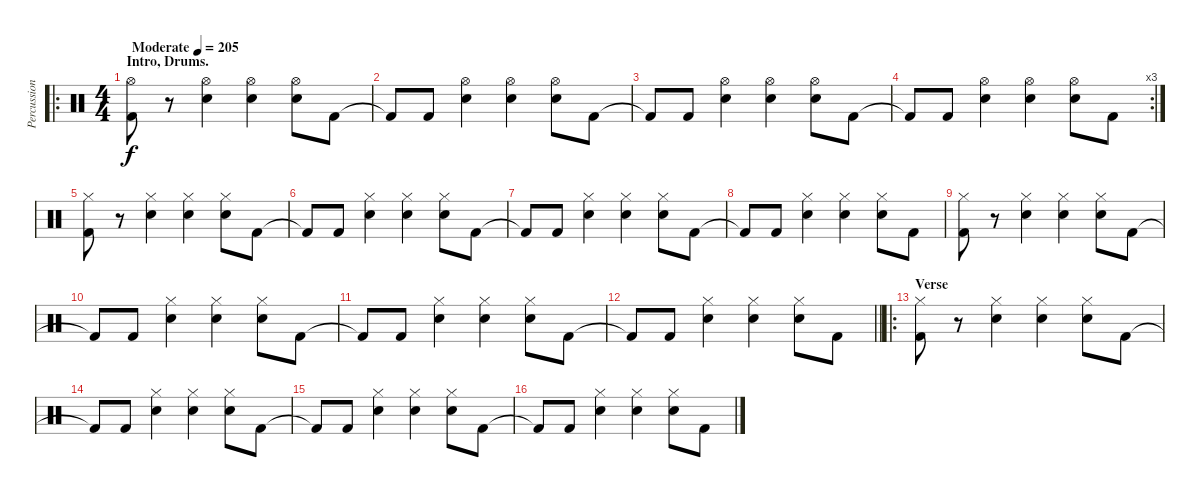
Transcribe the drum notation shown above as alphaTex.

\track ("Percussion" "Percussion") {instrument percussion}
\staff {score}
\articulation defaults
\ro
\ts (4 4)
\section ("" "Intro, Drums.")
\tempo (205 "Moderate")
\clef neutral
\ks c
("Hi-Hat (open)" "Kick (hit) 2").8{dy f} r.8 ("Hi-Hat (open)" "Electric Snare (hit)").4 ("Hi-Hat (open)" "Electric Snare (hit)").4 ("Hi-Hat (open)" "Electric Snare (hit)").8 "Kick (hit) 2".8 |
"Kick (hit) 2"{t}.8 "Kick (hit) 2".8 ("Hi-Hat (open)" "Electric Snare (hit)").4 ("Hi-Hat (open)" "Electric Snare (hit)").4 ("Hi-Hat (open)" "Electric Snare (hit)").8 "Kick (hit) 2".8 |
"Kick (hit) 2"{t}.8 "Kick (hit) 2".8 ("Hi-Hat (open)" "Electric Snare (hit)").4 ("Hi-Hat (open)" "Electric Snare (hit)").4 ("Hi-Hat (open)" "Electric Snare (hit)").8 "Kick (hit) 2".8 |
\rc 3 "Kick (hit) 2"{t}.8 "Kick (hit) 2".8
("Hi-Hat (open)" "Electric Snare (hit)").4 ("Hi-Hat (open)" "Electric Snare (hit)").4 ("Hi-Hat (open)" "Electric Snare (hit)").8 "Kick (hit) 2".8 |
("Hi-Hat (closed)" "Kick (hit) 2").8 r.8 ("Hi-Hat (closed)" "Electric Snare (hit)").4 ("Hi-Hat (closed)" "Electric Snare (hit)").4 ("Hi-Hat (closed)" "Electric Snare (hit)").8 "Kick (hit) 2".8 |
"Kick (hit) 2"{t}.8 "Kick (hit) 2".8 ("Hi-Hat (closed)" "Electric Snare (hit)").4 ("Hi-Hat (closed)" "Electric Snare (hit)").4 ("Hi-Hat (closed)" "Electric Snare (hit)").8 "Kick (hit) 2".8 |
"Kick (hit) 2"{t}.8 "Kick (hit) 2".8 ("Hi-Hat (closed)" "Electric Snare (hit)").4 ("Hi-Hat (closed)" "Electric Snare (hit)").4 ("Hi-Hat (closed)" "Electric Snare (hit)").8 "Kick (hit) 2".8 |
"Kick (hit) 2"{t}.8 "Kick (hit) 2".8 ("Hi-Hat (closed)" "Electric Snare (hit)").4 ("Hi-Hat (closed)" "Electric Snare (hit)").4 ("Hi-Hat (closed)" "Electric Snare (hit)").8 "Kick (hit) 2".8 |
("Hi-Hat (closed)" "Kick (hit) 2").8 r.8 ("Hi-Hat (closed)" "Electric Snare (hit)").4 ("Hi-Hat (closed)" "Electric Snare (hit)").4 ("Hi-Hat (closed)" "Electric Snare (hit)").8 "Kick (hit) 2".8 |
"Kick (hit) 2"{t}.8 "Kick (hit) 2".8 ("Hi-Hat (closed)" "Electric Snare (hit)").4 ("Hi-Hat (closed)" "Electric Snare (hit)").4 ("Hi-Hat (closed)" "Electric Snare (hit)").8 "Kick (hit) 2".8 |
"Kick (hit) 2"{t}.8 "Kick (hit) 2".8 ("Hi-Hat (closed)" "Electric Snare (hit)").4 ("Hi-Hat (closed)" "Electric Snare (hit)").4 ("Hi-Hat (closed)" "Electric Snare (hit)").8 "Kick (hit) 2".8 |
\barLineRight lightlight "Kick (hit) 2"{t}.8 "Kick (hit) 2".8
("Hi-Hat (closed)" "Electric Snare (hit)").4 ("Hi-Hat (closed)" "Electric Snare (hit)").4 ("Hi-Hat (closed)" "Electric Snare (hit)").8 "Kick (hit) 2".8 |
\ro
\section ("" "Verse")
("Hi-Hat (closed)" "Kick (hit) 2").8 r.8 ("Hi-Hat (closed)" "Electric Snare (hit)").4 ("Hi-Hat (closed)" "Electric Snare (hit)").4 ("Hi-Hat (closed)" "Electric Snare (hit)").8 "Kick (hit) 2".8 |
"Kick (hit) 2"{t}.8 "Kick (hit) 2".8 ("Hi-Hat (closed)" "Electric Snare (hit)").4 ("Hi-Hat (closed)" "Electric Snare (hit)").4 ("Hi-Hat (closed)" "Electric Snare (hit)").8 "Kick (hit) 2".8 |
"Kick (hit) 2"{t}.8 "Kick (hit) 2".8 ("Hi-Hat (closed)" "Electric Snare (hit)").4 ("Hi-Hat (closed)" "Electric Snare (hit)").4 ("Hi-Hat (closed)" "Electric Snare (hit)").8 "Kick (hit) 2".8 |
"Kick (hit) 2"{t}.8 "Kick (hit) 2".8 ("Hi-Hat (closed)" "Electric Snare (hit)").4 ("Hi-Hat (closed)" "Electric Snare (hit)").4 ("Hi-Hat (closed)" "Electric Snare (hit)").8 "Kick (hit) 2".8
